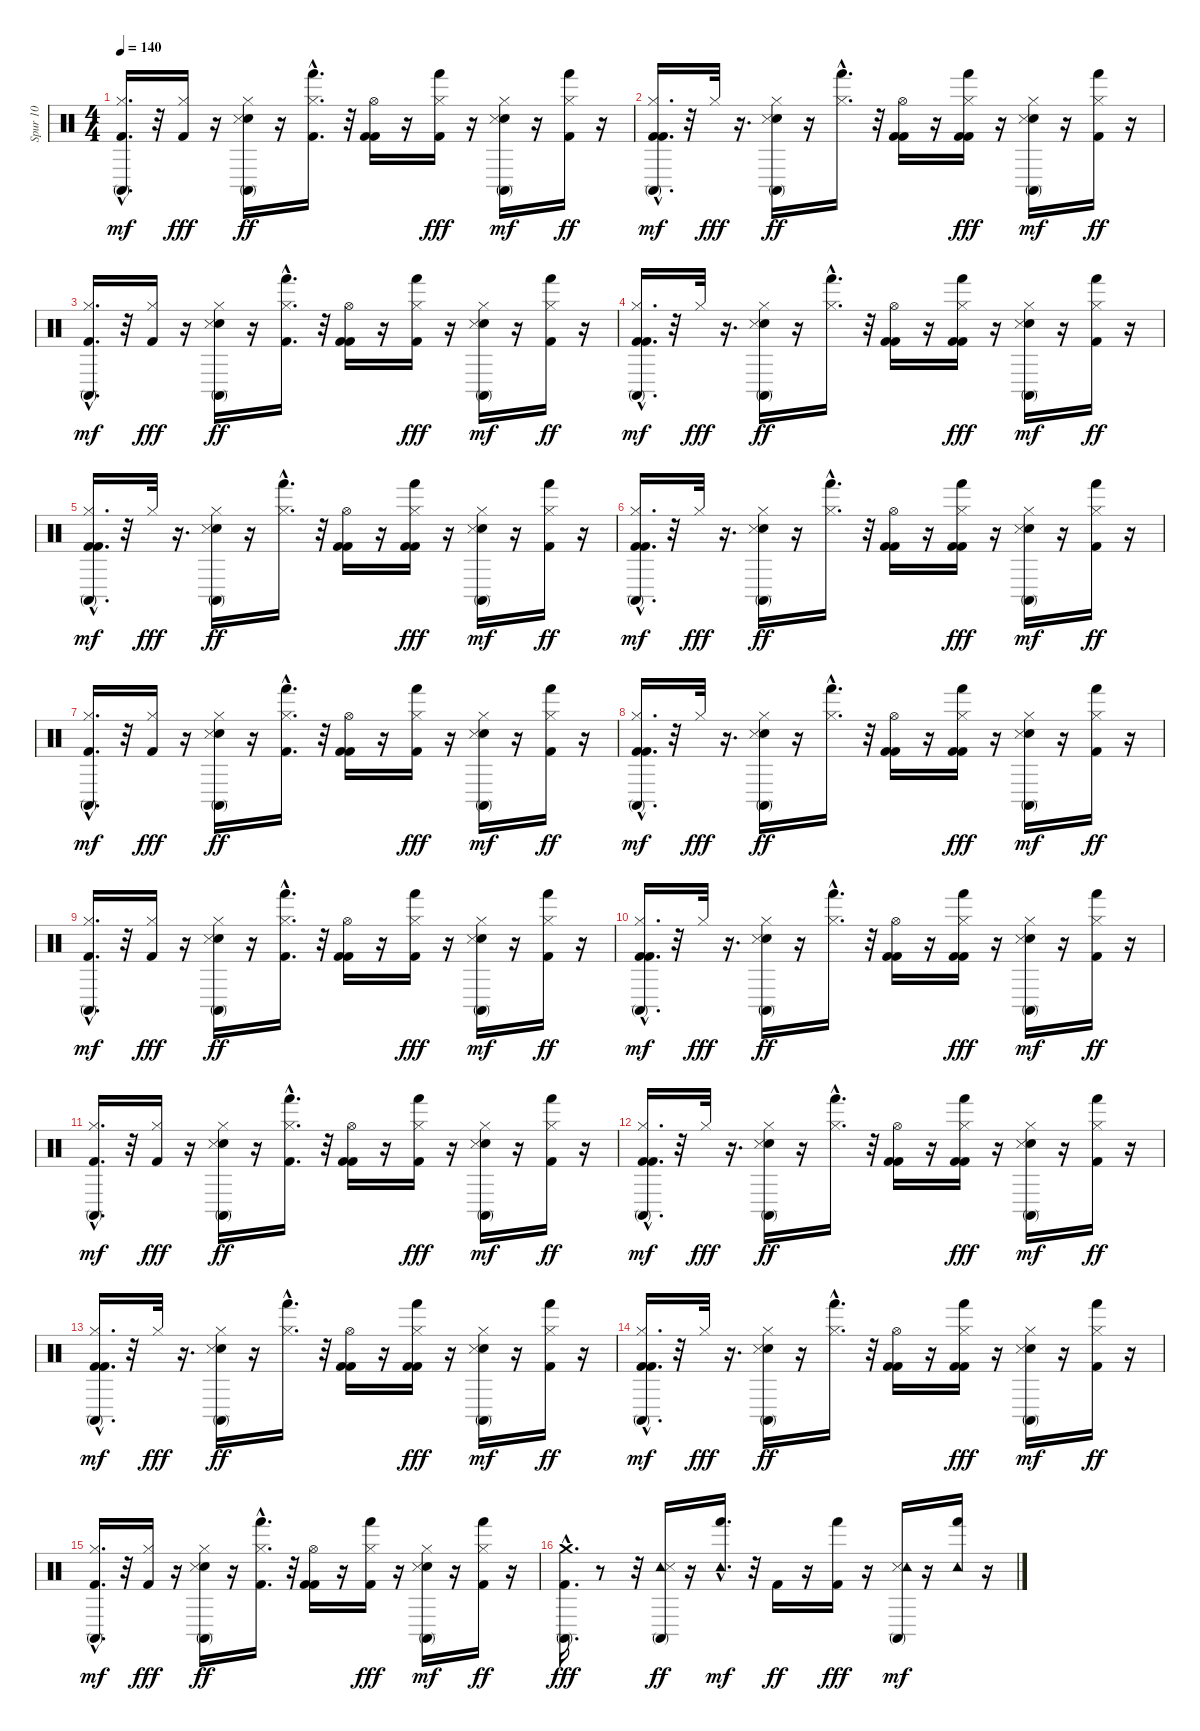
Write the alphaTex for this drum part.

\track ("Spur 10" "Spur 10") {instrument percussion}
\staff {score}
\articulation defaults
\ts (4 4)
\tempo 140
\clef neutral
\ks c
("Hi-Hat (closed)" "Kick (hit) 2" "Conga high (mute)"{hac}).16{d dy mf} r.32 ("Hi-Hat (closed)" "Kick (hit) 2").16{dy fff} r.16 ("Hi-Hat (closed)" "Electric Snare (hit)" "Snare (side stick) 3" "Conga high (mute)").16{dy ff} r.16 ("Hi-Hat (closed)" "Kick (hit) 2" "Hand (hit)"{hac}).16{d} r.32 ("Hi-Hat (open)" "Kick (hit) 2" "Kick (hit) 2").16 r.16 ("Hi-Hat (closed)" "Kick (hit) 2" "Hand (hit)").16{dy fff} r.16 ("Hi-Hat (closed)" "Electric Snare (hit)" "Snare (side stick) 3" "Conga high (mute)").16{dy mf} r.16 ("Hi-Hat (closed)" "Kick (hit) 2" "Hand (hit)").16{dy ff} r.16 |
("Hi-Hat (closed)" "Kick (hit) 2" "Kick (hit) 2" "Conga high (mute)"{hac}).16{d dy mf} r.32 "Hi-Hat (closed)".32{dy fff} r.16{d} ("Hi-Hat (closed)" "Electric Snare (hit)" "Snare (side stick) 3" "Conga high (mute)").16{dy ff} r.16 ("Hi-Hat (closed)" "Hand (hit)"{hac}).16{d} r.32 ("Hi-Hat (open)" "Kick (hit) 2" "Kick (hit) 2").16 r.16 ("Hi-Hat (closed)" "Kick (hit) 2" "Kick (hit) 2" "Hand (hit)").16{dy fff} r.16 ("Hi-Hat (closed)" "Electric Snare (hit)" "Snare (side stick) 3" "Conga high (mute)").16{dy mf} r.16 ("Hi-Hat (closed)" "Kick (hit) 2" "Hand (hit)").16{dy ff} r.16 |
("Hi-Hat (closed)" "Kick (hit) 2" "Conga high (mute)"{hac}).16{d dy mf} r.32 ("Hi-Hat (closed)" "Kick (hit) 2").16{dy fff} r.16 ("Hi-Hat (closed)" "Electric Snare (hit)" "Snare (side stick) 3" "Conga high (mute)").16{dy ff} r.16 ("Hi-Hat (closed)" "Kick (hit) 2" "Hand (hit)"{hac}).16{d} r.32 ("Hi-Hat (open)" "Kick (hit) 2" "Kick (hit) 2").16 r.16 ("Hi-Hat (closed)" "Kick (hit) 2" "Hand (hit)").16{dy fff} r.16 ("Hi-Hat (closed)" "Electric Snare (hit)" "Snare (side stick) 3" "Conga high (mute)").16{dy mf} r.16 ("Hi-Hat (closed)" "Kick (hit) 2" "Hand (hit)").16{dy ff} r.16 |
("Hi-Hat (closed)" "Kick (hit) 2" "Kick (hit) 2" "Conga high (mute)"{hac}).16{d dy mf} r.32 "Hi-Hat (closed)".32{dy fff} r.16{d} ("Hi-Hat (closed)" "Electric Snare (hit)" "Snare (side stick) 3" "Conga high (mute)").16{dy ff} r.16 ("Hi-Hat (closed)" "Hand (hit)"{hac}).16{d} r.32 ("Hi-Hat (open)" "Kick (hit) 2" "Kick (hit) 2").16 r.16 ("Hi-Hat (closed)" "Kick (hit) 2" "Kick (hit) 2" "Hand (hit)").16{dy fff} r.16 ("Hi-Hat (closed)" "Electric Snare (hit)" "Snare (side stick) 3" "Conga high (mute)").16{dy mf} r.16 ("Hi-Hat (closed)" "Kick (hit) 2" "Hand (hit)").16{dy ff} r.16 |
("Hi-Hat (closed)" "Kick (hit) 2" "Kick (hit) 2" "Conga high (mute)"{hac}).16{d dy mf} r.32 "Hi-Hat (closed)".32{dy fff} r.16{d} ("Hi-Hat (closed)" "Electric Snare (hit)" "Snare (side stick) 3" "Conga high (mute)").16{dy ff} r.16 ("Hi-Hat (closed)" "Hand (hit)"{hac}).16{d} r.32 ("Hi-Hat (open)" "Kick (hit) 2" "Kick (hit) 2").16 r.16 ("Hi-Hat (closed)" "Kick (hit) 2" "Kick (hit) 2" "Hand (hit)").16{dy fff} r.16 ("Hi-Hat (closed)" "Electric Snare (hit)" "Snare (side stick) 3" "Conga high (mute)").16{dy mf} r.16 ("Hi-Hat (closed)" "Kick (hit) 2" "Hand (hit)").16{dy ff} r.16 |
("Kick (hit) 2" "Hi-Hat (closed)" "Kick (hit) 2" "Conga high (mute)"{hac}).16{d dy mf} r.32 "Hi-Hat (closed)".32{dy fff} r.16{d} ("Electric Snare (hit)" "Hi-Hat (closed)" "Snare (side stick) 3" "Conga high (mute)").16{dy ff} r.16 ("Hi-Hat (closed)" "Hand (hit)"{hac}).16{d} r.32 ("Kick (hit) 2" "Hi-Hat (open)" "Kick (hit) 2").16 r.16 ("Kick (hit) 2" "Hi-Hat (closed)" "Kick (hit) 2" "Hand (hit)").16{dy fff} r.16 ("Electric Snare (hit)" "Hi-Hat (closed)" "Snare (side stick) 3" "Conga high (mute)").16{dy mf} r.16 ("Kick (hit) 2" "Hi-Hat (closed)" "Hand (hit)").16{dy ff} r.16 |
("Hi-Hat (closed)" "Kick (hit) 2" "Conga high (mute)"{hac}).16{d dy mf} r.32 ("Kick (hit) 2" "Hi-Hat (closed)").16{dy fff} r.16 ("Electric Snare (hit)" "Hi-Hat (closed)" "Snare (side stick) 3" "Conga high (mute)").16{dy ff} r.16 ("Kick (hit) 2" "Hi-Hat (closed)" "Hand (hit)"{hac}).16{d} r.32 ("Kick (hit) 2" "Hi-Hat (open)" "Kick (hit) 2").16 r.16 ("Hi-Hat (closed)" "Kick (hit) 2" "Hand (hit)").16{dy fff} r.16 ("Electric Snare (hit)" "Hi-Hat (closed)" "Snare (side stick) 3" "Conga high (mute)").16{dy mf} r.16 ("Kick (hit) 2" "Hi-Hat (closed)" "Hand (hit)").16{dy ff} r.16 |
("Kick (hit) 2" "Hi-Hat (closed)" "Kick (hit) 2" "Conga high (mute)"{hac}).16{d dy mf} r.32 "Hi-Hat (closed)".32{dy fff} r.16{d} ("Electric Snare (hit)" "Hi-Hat (closed)" "Snare (side stick) 3" "Conga high (mute)").16{dy ff} r.16 ("Hi-Hat (closed)" "Hand (hit)"{hac}).16{d} r.32 ("Kick (hit) 2" "Hi-Hat (open)" "Kick (hit) 2").16 r.16 ("Kick (hit) 2" "Hi-Hat (closed)" "Kick (hit) 2" "Hand (hit)").16{dy fff} r.16 ("Electric Snare (hit)" "Hi-Hat (closed)" "Snare (side stick) 3" "Conga high (mute)").16{dy mf} r.16 ("Kick (hit) 2" "Hi-Hat (closed)" "Hand (hit)").16{dy ff} r.16 |
("Hi-Hat (closed)" "Kick (hit) 2" "Conga high (mute)"{hac}).16{d dy mf} r.32 ("Kick (hit) 2" "Hi-Hat (closed)").16{dy fff} r.16 ("Electric Snare (hit)" "Hi-Hat (closed)" "Snare (side stick) 3" "Conga high (mute)").16{dy ff} r.16 ("Kick (hit) 2" "Hi-Hat (closed)" "Hand (hit)"{hac}).16{d} r.32 ("Kick (hit) 2" "Hi-Hat (open)" "Kick (hit) 2").16 r.16 ("Hi-Hat (closed)" "Kick (hit) 2" "Hand (hit)").16{dy fff} r.16 ("Electric Snare (hit)" "Hi-Hat (closed)" "Snare (side stick) 3" "Conga high (mute)").16{dy mf} r.16 ("Kick (hit) 2" "Hi-Hat (closed)" "Hand (hit)").16{dy ff} r.16 |
("Kick (hit) 2" "Hi-Hat (closed)" "Kick (hit) 2" "Conga high (mute)"{hac}).16{d dy mf} r.32 "Hi-Hat (closed)".32{dy fff} r.16{d} ("Electric Snare (hit)" "Hi-Hat (closed)" "Snare (side stick) 3" "Conga high (mute)").16{dy ff} r.16 ("Hi-Hat (closed)" "Hand (hit)"{hac}).16{d} r.32 ("Kick (hit) 2" "Hi-Hat (open)" "Kick (hit) 2").16 r.16 ("Kick (hit) 2" "Hi-Hat (closed)" "Kick (hit) 2" "Hand (hit)").16{dy fff} r.16 ("Electric Snare (hit)" "Hi-Hat (closed)" "Snare (side stick) 3" "Conga high (mute)").16{dy mf} r.16 ("Kick (hit) 2" "Hi-Hat (closed)" "Hand (hit)").16{dy ff} r.16 |
("Hi-Hat (closed)" "Kick (hit) 2" "Conga high (mute)"{hac}).16{d dy mf} r.32 ("Kick (hit) 2" "Hi-Hat (closed)").16{dy fff} r.16 ("Electric Snare (hit)" "Hi-Hat (closed)" "Snare (side stick) 3" "Conga high (mute)").16{dy ff} r.16 ("Kick (hit) 2" "Hi-Hat (closed)" "Hand (hit)"{hac}).16{d} r.32 ("Kick (hit) 2" "Hi-Hat (open)" "Kick (hit) 2").16 r.16 ("Hi-Hat (closed)" "Kick (hit) 2" "Hand (hit)").16{dy fff} r.16 ("Electric Snare (hit)" "Hi-Hat (closed)" "Snare (side stick) 3" "Conga high (mute)").16{dy mf} r.16 ("Kick (hit) 2" "Hi-Hat (closed)" "Hand (hit)").16{dy ff} r.16 |
("Kick (hit) 2" "Hi-Hat (closed)" "Kick (hit) 2" "Conga high (mute)"{hac}).16{d dy mf} r.32 "Hi-Hat (closed)".32{dy fff} r.16{d} ("Electric Snare (hit)" "Hi-Hat (closed)" "Snare (side stick) 3" "Conga high (mute)").16{dy ff} r.16 ("Hi-Hat (closed)" "Hand (hit)"{hac}).16{d} r.32 ("Kick (hit) 2" "Hi-Hat (open)" "Kick (hit) 2").16 r.16 ("Kick (hit) 2" "Hi-Hat (closed)" "Kick (hit) 2" "Hand (hit)").16{dy fff} r.16 ("Electric Snare (hit)" "Hi-Hat (closed)" "Snare (side stick) 3" "Conga high (mute)").16{dy mf} r.16 ("Kick (hit) 2" "Hi-Hat (closed)" "Hand (hit)").16{dy ff} r.16 |
("Kick (hit) 2" "Hi-Hat (closed)" "Kick (hit) 2" "Conga high (mute)"{hac}).16{d dy mf} r.32 "Hi-Hat (closed)".32{dy fff} r.16{d} ("Electric Snare (hit)" "Hi-Hat (closed)" "Snare (side stick) 3" "Conga high (mute)").16{dy ff} r.16 ("Hi-Hat (closed)" "Hand (hit)"{hac}).16{d} r.32 ("Kick (hit) 2" "Hi-Hat (open)" "Kick (hit) 2").16 r.16 ("Kick (hit) 2" "Hi-Hat (closed)" "Kick (hit) 2" "Hand (hit)").16{dy fff} r.16 ("Electric Snare (hit)" "Hi-Hat (closed)" "Snare (side stick) 3" "Conga high (mute)").16{dy mf} r.16 ("Kick (hit) 2" "Hi-Hat (closed)" "Hand (hit)").16{dy ff} r.16 |
("Hi-Hat (closed)" "Kick (hit) 2" "Kick (hit) 2" "Conga high (mute)"{hac}).16{d dy mf} r.32 "Hi-Hat (closed)".32{dy fff} r.16{d} ("Hi-Hat (closed)" "Electric Snare (hit)" "Snare (side stick) 3" "Conga high (mute)").16{dy ff} r.16 ("Hi-Hat (closed)" "Hand (hit)"{hac}).16{d} r.32 ("Hi-Hat (open)" "Kick (hit) 2" "Kick (hit) 2").16 r.16 ("Hi-Hat (closed)" "Kick (hit) 2" "Kick (hit) 2" "Hand (hit)").16{dy fff} r.16 ("Hi-Hat (closed)" "Electric Snare (hit)" "Snare (side stick) 3" "Conga high (mute)").16{dy mf} r.16 ("Hi-Hat (closed)" "Kick (hit) 2" "Hand (hit)").16{dy ff} r.16 |
("Hi-Hat (closed)" "Kick (hit) 2" "Conga high (mute)"{hac}).16{d dy mf} r.32 ("Hi-Hat (closed)" "Kick (hit) 2").16{dy fff} r.16 ("Hi-Hat (closed)" "Electric Snare (hit)" "Snare (side stick) 3" "Conga high (mute)").16{dy ff} r.16 ("Hi-Hat (closed)" "Kick (hit) 2" "Hand (hit)"{hac}).16{d} r.32 ("Hi-Hat (open)" "Kick (hit) 2" "Kick (hit) 2").16 r.16 ("Hi-Hat (closed)" "Kick (hit) 2" "Hand (hit)").16{dy fff} r.16 ("Hi-Hat (closed)" "Electric Snare (hit)" "Snare (side stick) 3" "Conga high (mute)").16{dy mf} r.16 ("Hi-Hat (closed)" "Kick (hit) 2" "Hand (hit)").16{dy ff} r.16 |
("Kick (hit) 2" "Conga high (mute)"{hac} "Crash medium (hit)").16{d dy fff} r.8 r.32 ("Tambourine (hit)" "Snare (side stick) 3" "Conga high (mute)").16{dy ff} r.16 ("Hand (hit)"{hac} "Tambourine (hit)").16{d dy mf} r.32 "Kick (hit) 2".16{dy ff} r.16 ("Kick (hit) 2" "Hand (hit)").16{dy fff} r.16 ("Snare (side stick) 3" "Conga high (mute)" "Tambourine (hit)").16{dy mf} r.16 ("Hand (hit)" "Tambourine (hit)").16 r.16
